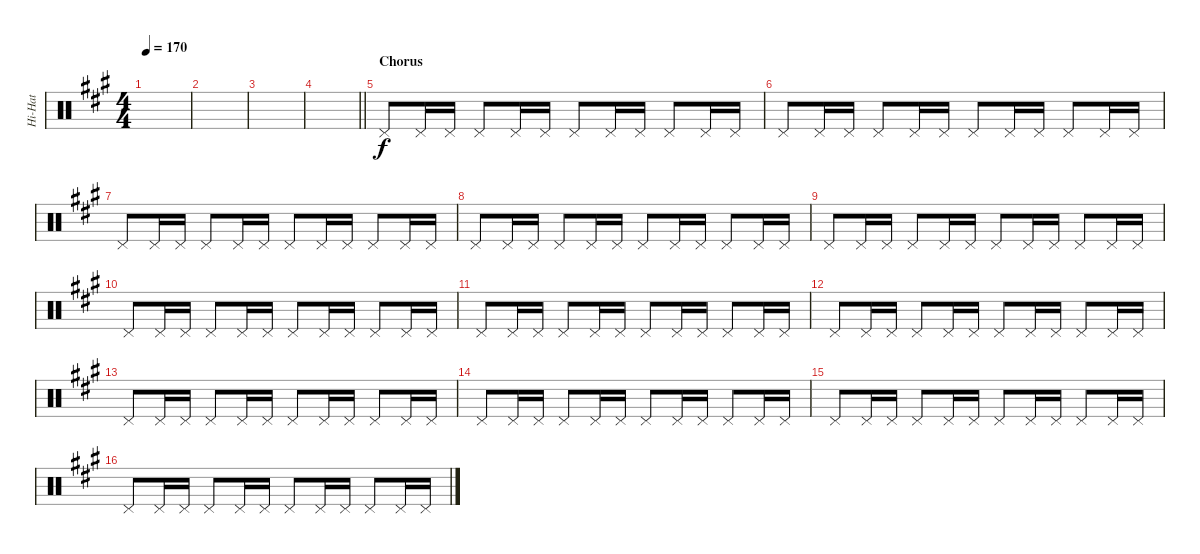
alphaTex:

\track ("Hi-Hat" "Hi-Hat") {instrument percussion}
\staff {score}
\articulation defaults
\ts (4 4)
\tempo 170
\clef neutral
\ks a
|
|
|
\barLineRight lightlight
|
\section ("" "Chorus")
"Pedal Hi-Hat (hit)".8 "Pedal Hi-Hat (hit)".16 "Pedal Hi-Hat (hit)".16 "Pedal Hi-Hat (hit)".8 "Pedal Hi-Hat (hit)".16 "Pedal Hi-Hat (hit)".16 "Pedal Hi-Hat (hit)".8 "Pedal Hi-Hat (hit)".16 "Pedal Hi-Hat (hit)".16 "Pedal Hi-Hat (hit)".8 "Pedal Hi-Hat (hit)".16 "Pedal Hi-Hat (hit)".16 |
"Pedal Hi-Hat (hit)".8 "Pedal Hi-Hat (hit)".16 "Pedal Hi-Hat (hit)".16 "Pedal Hi-Hat (hit)".8 "Pedal Hi-Hat (hit)".16 "Pedal Hi-Hat (hit)".16 "Pedal Hi-Hat (hit)".8 "Pedal Hi-Hat (hit)".16 "Pedal Hi-Hat (hit)".16 "Pedal Hi-Hat (hit)".8 "Pedal Hi-Hat (hit)".16 "Pedal Hi-Hat (hit)".16 |
"Pedal Hi-Hat (hit)".8 "Pedal Hi-Hat (hit)".16 "Pedal Hi-Hat (hit)".16 "Pedal Hi-Hat (hit)".8 "Pedal Hi-Hat (hit)".16 "Pedal Hi-Hat (hit)".16 "Pedal Hi-Hat (hit)".8 "Pedal Hi-Hat (hit)".16 "Pedal Hi-Hat (hit)".16 "Pedal Hi-Hat (hit)".8 "Pedal Hi-Hat (hit)".16 "Pedal Hi-Hat (hit)".16 |
"Pedal Hi-Hat (hit)".8 "Pedal Hi-Hat (hit)".16 "Pedal Hi-Hat (hit)".16 "Pedal Hi-Hat (hit)".8 "Pedal Hi-Hat (hit)".16 "Pedal Hi-Hat (hit)".16 "Pedal Hi-Hat (hit)".8 "Pedal Hi-Hat (hit)".16 "Pedal Hi-Hat (hit)".16 "Pedal Hi-Hat (hit)".8 "Pedal Hi-Hat (hit)".16 "Pedal Hi-Hat (hit)".16 |
"Pedal Hi-Hat (hit)".8 "Pedal Hi-Hat (hit)".16 "Pedal Hi-Hat (hit)".16 "Pedal Hi-Hat (hit)".8 "Pedal Hi-Hat (hit)".16 "Pedal Hi-Hat (hit)".16 "Pedal Hi-Hat (hit)".8 "Pedal Hi-Hat (hit)".16 "Pedal Hi-Hat (hit)".16 "Pedal Hi-Hat (hit)".8 "Pedal Hi-Hat (hit)".16 "Pedal Hi-Hat (hit)".16 |
"Pedal Hi-Hat (hit)".8 "Pedal Hi-Hat (hit)".16 "Pedal Hi-Hat (hit)".16 "Pedal Hi-Hat (hit)".8 "Pedal Hi-Hat (hit)".16 "Pedal Hi-Hat (hit)".16 "Pedal Hi-Hat (hit)".8 "Pedal Hi-Hat (hit)".16 "Pedal Hi-Hat (hit)".16 "Pedal Hi-Hat (hit)".8 "Pedal Hi-Hat (hit)".16 "Pedal Hi-Hat (hit)".16 |
"Pedal Hi-Hat (hit)".8 "Pedal Hi-Hat (hit)".16 "Pedal Hi-Hat (hit)".16 "Pedal Hi-Hat (hit)".8 "Pedal Hi-Hat (hit)".16 "Pedal Hi-Hat (hit)".16 "Pedal Hi-Hat (hit)".8 "Pedal Hi-Hat (hit)".16 "Pedal Hi-Hat (hit)".16 "Pedal Hi-Hat (hit)".8 "Pedal Hi-Hat (hit)".16 "Pedal Hi-Hat (hit)".16 |
"Pedal Hi-Hat (hit)".8 "Pedal Hi-Hat (hit)".16 "Pedal Hi-Hat (hit)".16 "Pedal Hi-Hat (hit)".8 "Pedal Hi-Hat (hit)".16 "Pedal Hi-Hat (hit)".16 "Pedal Hi-Hat (hit)".8 "Pedal Hi-Hat (hit)".16 "Pedal Hi-Hat (hit)".16 "Pedal Hi-Hat (hit)".8 "Pedal Hi-Hat (hit)".16 "Pedal Hi-Hat (hit)".16 |
"Pedal Hi-Hat (hit)".8 "Pedal Hi-Hat (hit)".16 "Pedal Hi-Hat (hit)".16 "Pedal Hi-Hat (hit)".8 "Pedal Hi-Hat (hit)".16 "Pedal Hi-Hat (hit)".16 "Pedal Hi-Hat (hit)".8 "Pedal Hi-Hat (hit)".16 "Pedal Hi-Hat (hit)".16 "Pedal Hi-Hat (hit)".8 "Pedal Hi-Hat (hit)".16 "Pedal Hi-Hat (hit)".16 |
"Pedal Hi-Hat (hit)".8 "Pedal Hi-Hat (hit)".16 "Pedal Hi-Hat (hit)".16 "Pedal Hi-Hat (hit)".8 "Pedal Hi-Hat (hit)".16 "Pedal Hi-Hat (hit)".16 "Pedal Hi-Hat (hit)".8 "Pedal Hi-Hat (hit)".16 "Pedal Hi-Hat (hit)".16 "Pedal Hi-Hat (hit)".8 "Pedal Hi-Hat (hit)".16 "Pedal Hi-Hat (hit)".16 |
"Pedal Hi-Hat (hit)".8 "Pedal Hi-Hat (hit)".16 "Pedal Hi-Hat (hit)".16 "Pedal Hi-Hat (hit)".8 "Pedal Hi-Hat (hit)".16 "Pedal Hi-Hat (hit)".16 "Pedal Hi-Hat (hit)".8 "Pedal Hi-Hat (hit)".16 "Pedal Hi-Hat (hit)".16 "Pedal Hi-Hat (hit)".8 "Pedal Hi-Hat (hit)".16 "Pedal Hi-Hat (hit)".16 |
"Pedal Hi-Hat (hit)".8 "Pedal Hi-Hat (hit)".16 "Pedal Hi-Hat (hit)".16 "Pedal Hi-Hat (hit)".8 "Pedal Hi-Hat (hit)".16 "Pedal Hi-Hat (hit)".16 "Pedal Hi-Hat (hit)".8 "Pedal Hi-Hat (hit)".16 "Pedal Hi-Hat (hit)".16 "Pedal Hi-Hat (hit)".8 "Pedal Hi-Hat (hit)".16 "Pedal Hi-Hat (hit)".16
